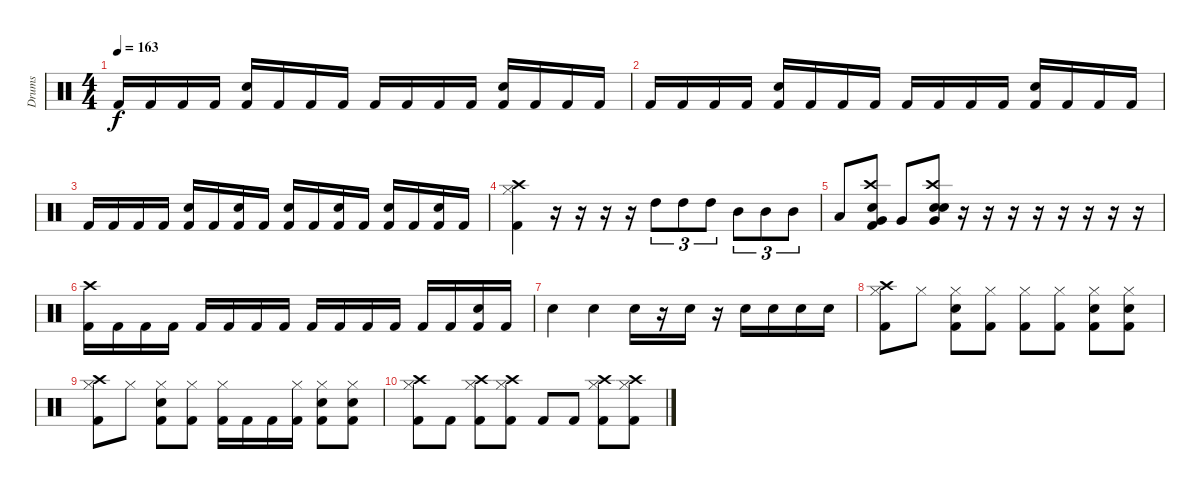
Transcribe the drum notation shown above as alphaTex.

\track ("Drums" "Drums") {instrument percussion}
\staff {score}
\articulation defaults
\ts (4 4)
\tempo 163
\clef neutral
\ks c "Kick (hit) 2".16{dy f} "Kick (hit) 2".16 "Kick (hit) 2".16 "Kick (hit) 2".16
("Snare (hit) 2" "Kick (hit) 2").16 "Kick (hit) 2".16 "Kick (hit) 2".16 "Kick (hit) 2".16 "Kick (hit) 2".16 "Kick (hit) 2".16 "Kick (hit) 2".16 "Kick (hit) 2".16 ("Snare (hit) 2" "Kick (hit) 2").16 "Kick (hit) 2".16 "Kick (hit) 2".16 "Kick (hit) 2".16 |
"Kick (hit) 2".16 "Kick (hit) 2".16 "Kick (hit) 2".16 "Kick (hit) 2".16 ("Snare (hit) 2" "Kick (hit) 2").16 "Kick (hit) 2".16 "Kick (hit) 2".16 "Kick (hit) 2".16 "Kick (hit) 2".16 "Kick (hit) 2".16 "Kick (hit) 2".16 "Kick (hit) 2".16 ("Snare (hit) 2" "Kick (hit) 2").16 "Kick (hit) 2".16 "Kick (hit) 2".16 "Kick (hit) 2".16 |
"Kick (hit) 2".16 "Kick (hit) 2".16 "Kick (hit) 2".16 "Kick (hit) 2".16 ("Snare (hit) 2" "Kick (hit) 2").16 "Kick (hit) 2".16 ("Snare (hit) 2" "Kick (hit) 2").16 "Kick (hit) 2".16 ("Snare (hit) 2" "Kick (hit) 2").16 "Kick (hit) 2".16 ("Snare (hit) 2" "Kick (hit) 2").16 "Kick (hit) 2".16 ("Snare (hit) 2" "Kick (hit) 2").16 "Kick (hit) 2".16 ("Snare (hit) 2" "Kick (hit) 2").16 "Kick (hit) 2".16 |
("Crash high (hit)" "Hi-Hat (closed)" "Kick (hit) 2").4 r.16 r.16 r.16 r.16 "High Tom (hit)".8{tu (3 2)} "High Tom (hit)".8{tu (3 2)} "High Tom (hit)".8{tu (3 2)} "Mid Tom (hit)".8{tu (3 2)} "Mid Tom (hit)".8{tu (3 2)} "Mid Tom (hit)".8{tu (3 2)} |
"Low Tom (hit)".8 ("Crash high (hit)" "Electric Snare (hit)" "Very Low Tom (hit)" "Kick (hit) 2").8 "Very Low Tom (hit)".8 ("Crash high (hit)" "Electric Snare (hit)" "Very Low Tom (hit)" "Snare (hit)").8 r.16 r.16 r.16 r.16 r.16 r.16 r.16 r.16 |
("Crash high (hit)" "Kick (hit) 2").16 "Kick (hit) 2".16 "Kick (hit) 2".16 "Kick (hit) 2".16 "Kick (hit) 2".16 "Kick (hit) 2".16 "Kick (hit) 2".16 "Kick (hit) 2".16 "Kick (hit) 2".16 "Kick (hit) 2".16 "Kick (hit) 2".16 "Kick (hit) 2".16 "Kick (hit) 2".16 "Kick (hit) 2".16 ("Snare (hit) 2" "Kick (hit) 2").16 "Kick (hit) 2".16 |
"Snare (hit) 2".4 "Snare (hit) 2".4 "Snare (hit) 2".16 r.16 "Snare (hit) 2".16 r.16 "Snare (hit) 2".16 "Snare (hit) 2".16 "Snare (hit) 2".16 "Snare (hit) 2".16 |
("Crash high (hit)" "Hi-Hat (closed)" "Kick (hit) 2").8 "Hi-Hat (closed)".8 ("Snare (hit) 2" "Hi-Hat (closed)" "Kick (hit) 2").8 ("Hi-Hat (closed)" "Kick (hit) 2").8 ("Hi-Hat (closed)" "Kick (hit) 2").8 ("Hi-Hat (closed)" "Kick (hit) 2").8 ("Snare (hit) 2" "Hi-Hat (closed)" "Kick (hit) 2").8 ("Snare (hit) 2" "Hi-Hat (closed)" "Kick (hit) 2").8 |
("Crash high (hit)" "Hi-Hat (closed)" "Kick (hit) 2").8 "Hi-Hat (closed)".8 ("Snare (hit) 2" "Hi-Hat (closed)" "Kick (hit) 2").8 ("Hi-Hat (closed)" "Kick (hit) 2").8 ("Hi-Hat (closed)" "Kick (hit) 2").16 "Kick (hit) 2".16 "Kick (hit) 2".16 ("Hi-Hat (closed)" "Kick (hit) 2").16 ("Snare (hit) 2" "Hi-Hat (closed)" "Kick (hit) 2").8 ("Snare (hit) 2" "Hi-Hat (closed)" "Kick (hit) 2").8 |
("Crash high (hit)" "Hi-Hat (closed)" "Kick (hit) 2").8 "Kick (hit) 2".8 ("Crash high (hit)" "Hi-Hat (closed)" "Kick (hit) 2").8 ("Crash high (hit)" "Hi-Hat (closed)" "Kick (hit) 2").8 "Kick (hit) 2".8 "Kick (hit) 2".8 ("Crash high (hit)" "Hi-Hat (closed)" "Kick (hit) 2").8 ("Crash high (hit)" "Hi-Hat (closed)" "Kick (hit) 2").8
